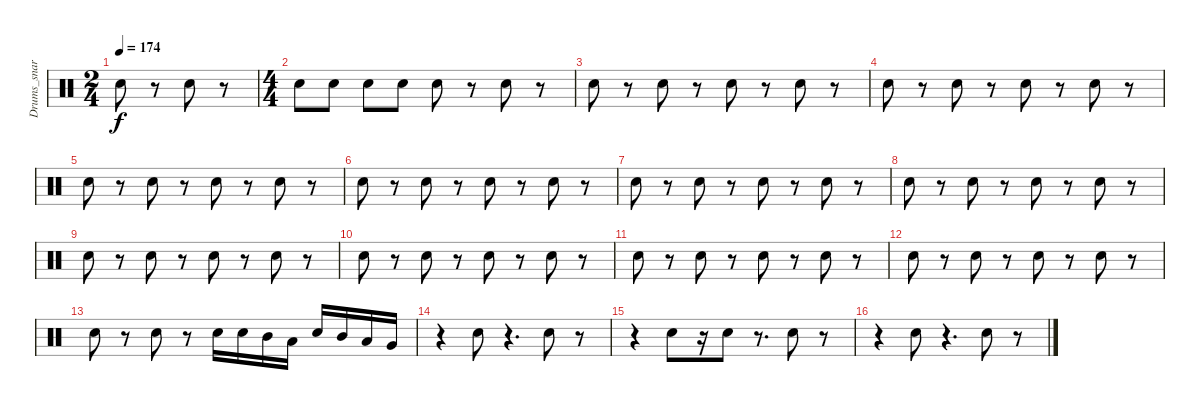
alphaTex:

\track ("Drums_snare&tom" "Drums_snar") {instrument percussion}
\staff {score}
\articulation defaults
\ts (2 4)
\tempo 174
\clef neutral
\ks c "Electric Snare (hit)".8{dy f}
r.8 "Electric Snare (hit)".8 r.8 |
\ts (4 4)
"Electric Snare (hit)".8 "Electric Snare (hit)".8 "Electric Snare (hit)".8 "Electric Snare (hit)".8 "Electric Snare (hit)".8 r.8 "Electric Snare (hit)".8 r.8 |
"Electric Snare (hit)".8 r.8 "Electric Snare (hit)".8 r.8 "Electric Snare (hit)".8 r.8 "Electric Snare (hit)".8 r.8 |
"Electric Snare (hit)".8 r.8 "Electric Snare (hit)".8 r.8 "Electric Snare (hit)".8 r.8 "Electric Snare (hit)".8 r.8 |
"Electric Snare (hit)".8 r.8 "Electric Snare (hit)".8 r.8 "Electric Snare (hit)".8 r.8 "Electric Snare (hit)".8 r.8 |
"Electric Snare (hit)".8 r.8 "Electric Snare (hit)".8 r.8 "Electric Snare (hit)".8 r.8 "Electric Snare (hit)".8 r.8 |
"Electric Snare (hit)".8 r.8 "Electric Snare (hit)".8 r.8 "Electric Snare (hit)".8 r.8 "Electric Snare (hit)".8 r.8 |
"Electric Snare (hit)".8 r.8 "Electric Snare (hit)".8 r.8 "Electric Snare (hit)".8 r.8 "Electric Snare (hit)".8 r.8 |
"Electric Snare (hit)".8 r.8 "Electric Snare (hit)".8 r.8 "Electric Snare (hit)".8 r.8 "Electric Snare (hit)".8 r.8 |
"Electric Snare (hit)".8 r.8 "Electric Snare (hit)".8 r.8 "Electric Snare (hit)".8 r.8 "Electric Snare (hit)".8 r.8 |
"Electric Snare (hit)".8 r.8 "Electric Snare (hit)".8 r.8 "Electric Snare (hit)".8 r.8 "Electric Snare (hit)".8 r.8 |
"Electric Snare (hit)".8 r.8 "Electric Snare (hit)".8 r.8 "Electric Snare (hit)".8 r.8 "Electric Snare (hit)".8 r.8 |
"Electric Snare (hit)".8 r.8 "Electric Snare (hit)".8 r.8 "Electric Snare (hit)".16 "Electric Snare (hit)".16 "Mid Tom (hit)".16 "Low Tom (hit)".16 "Electric Snare (hit)".16 "Mid Tom (hit)".16 "Low Tom (hit)".16 "Very Low Tom (hit)".16 |
r.4 "Electric Snare (hit)".8 r.4{d} "Electric Snare (hit)".8 r.8 |
r.4 "Electric Snare (hit)".8 r.16 "Electric Snare (hit)".8 r.8{d} "Electric Snare (hit)".8 r.8 |
r.4 "Electric Snare (hit)".8 r.4{d} "Electric Snare (hit)".8 r.8
